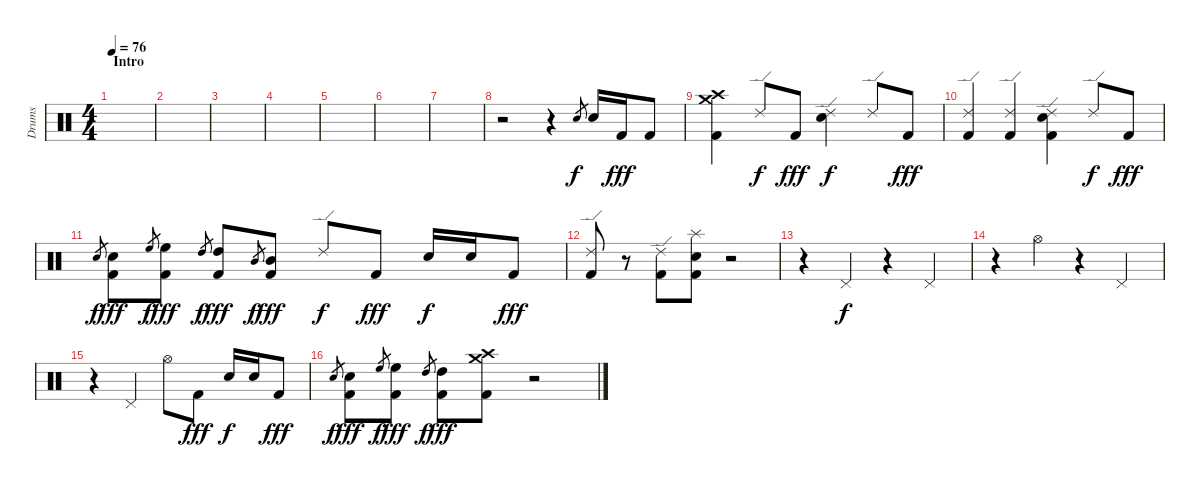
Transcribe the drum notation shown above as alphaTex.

\track ("Drums" "Drums") {instrument percussion}
\staff {score}
\articulation defaults
\ts (4 4)
\section ("" "Intro")
\tempo 76
\clef neutral
\ks c
|
|
|
|
|
|
|
r.2 r.4 "Snare (hit) 2".8{gr} "Snare (hit) 2".16{volume 15} "Kick (hit) 2".16{dy fff} "Kick (hit) 2".8 |
("Crash medium (hit)" "Crash high (hit)" "Kick (hit) 2").4 "Ride (edge) 2".8{dy f} "Kick (hit) 2".8{dy fff} ("Ride (edge) 2" "Snare (hit) 2").4{dy f} "Ride (edge) 2".8 "Kick (hit) 2".8{dy fff} |
("Ride (edge) 2" "Kick (hit) 2").4 ("Ride (edge) 2" "Kick (hit) 2").4 ("Ride (edge) 2" "Snare (hit) 2" "Kick (hit) 2").4 "Ride (edge) 2".8{dy f} "Kick (hit) 2".8{dy fff} |
"Snare (hit) 2".8{gr dy f} ("Snare (hit) 2" "Kick (hit) 2").8{dy fff} "High Floor Tom (hit)".8{gr dy f} ("High Floor Tom (hit)" "Kick (hit) 2").8{dy fff} "High Tom (hit)".8{gr dy f} ("High Tom (hit)" "Kick (hit) 2").8{dy fff} "Mid Tom (hit)".8{gr dy f} ("Mid Tom (hit)" "Kick (hit) 2").8{dy fff} "Ride (edge) 2".8{dy f} "Kick (hit) 2".8{dy fff} "Snare (hit) 2".16{dy f} "Snare (hit) 2".16 "Kick (hit) 2".8{dy fff} |
("Ride (edge) 2" "Kick (hit) 2").8 r.8 ("Ride (edge) 2" "Kick (hit) 2").8 ("Splash (hit)" "Snare (hit) 2" "Kick (hit) 2").8 r.2 |
r.4 "Pedal Hi-Hat (hit)".4{dy f} r.4 "Pedal Hi-Hat (hit)".4 |
r.4 "Hi-Hat (open)".4 r.4 "Pedal Hi-Hat (hit)".4 |
r.4 "Pedal Hi-Hat (hit)".4 "Hi-Hat (open)".8 "Kick (hit) 2".8{dy fff} "Snare (hit) 2".16{dy f} "Snare (hit) 2".16 "Kick (hit) 2".8{dy fff} |
"Snare (hit) 2".8{gr dy f} ("Snare (hit) 2" "Kick (hit) 2").8{dy fff} "High Floor Tom (hit)".8{gr dy f} ("High Floor Tom (hit)" "Kick (hit) 2").8{dy fff} "High Tom (hit)".8{gr dy f} ("High Tom (hit)" "Kick (hit) 2").8{dy fff} ("Crash medium (hit)" "Crash high (hit)" "Kick (hit) 2").8 r.2
